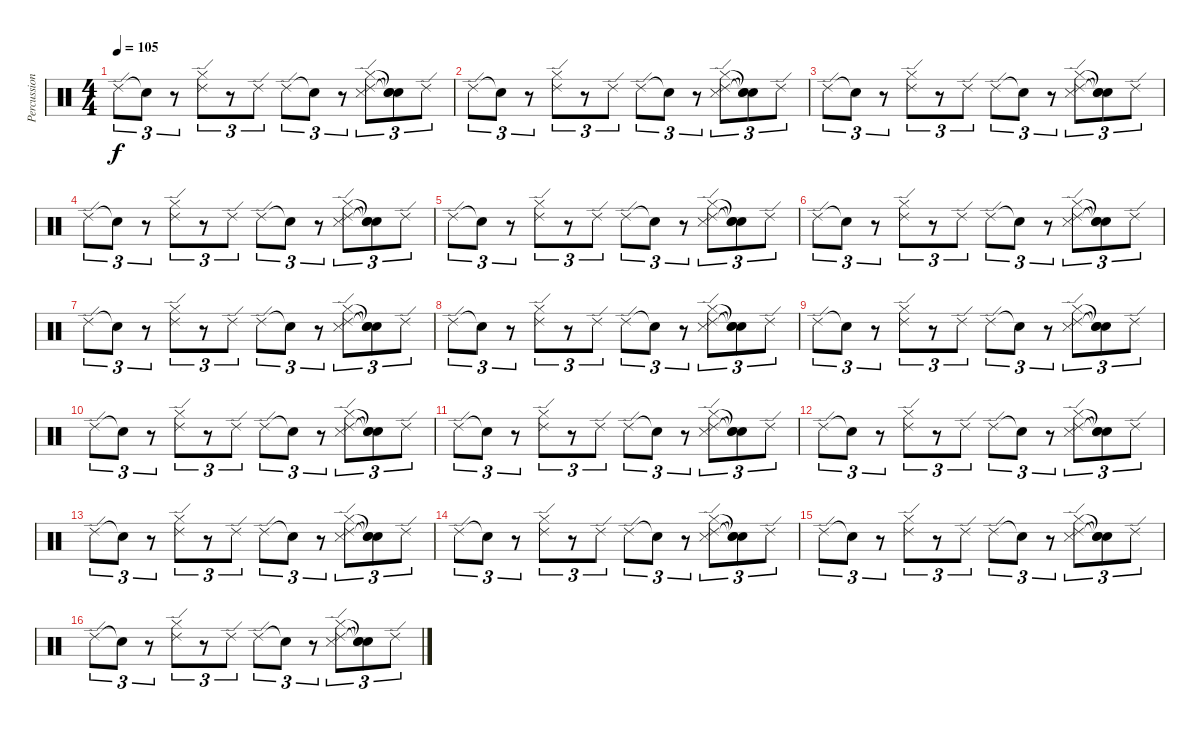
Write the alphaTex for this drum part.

\track ("Percussion" "Percussion") {instrument percussion}
\staff {score}
\articulation defaults
\ts (4 4)
\tempo 105
\clef neutral
\ks c "Ride (edge) 2".8{tu (3 2) dy f} "Snare (hit)"{t}.8{tu (3 2)}
r.8{tu (3 2)} ("Ride (edge) 2" "Hi-Hat (closed)").8{tu (3 2)} r.8{tu (3 2)} "Ride (edge) 2".8{tu (3 2)} "Ride (edge) 2".8{tu (3 2)} "Snare (hit)"{t}.8{tu (3 2)} r.8{tu (3 2)} ("Ride (edge) 2" "Snare (side stick) 3" "Hi-Hat (closed)").8{tu (3 2)} ("Snare (hit)"{t} "Snare (hit)"{t} "Snare (hit)"{t}).8{tu (3 2)} "Ride (edge) 2".8{tu (3 2)} |
"Ride (edge) 2".8{tu (3 2)} "Snare (hit)"{t}.8{tu (3 2)} r.8{tu (3 2)} ("Ride (edge) 2" "Hi-Hat (closed)").8{tu (3 2)} r.8{tu (3 2)} "Ride (edge) 2".8{tu (3 2)} "Ride (edge) 2".8{tu (3 2)} "Snare (hit)"{t}.8{tu (3 2)} r.8{tu (3 2)} ("Ride (edge) 2" "Snare (side stick) 3" "Hi-Hat (closed)").8{tu (3 2)} ("Snare (hit)"{t} "Snare (hit)"{t} "Snare (hit)"{t}).8{tu (3 2)} "Ride (edge) 2".8{tu (3 2)} |
"Ride (edge) 2".8{tu (3 2)} "Snare (hit)"{t}.8{tu (3 2)} r.8{tu (3 2)} ("Ride (edge) 2" "Hi-Hat (closed)").8{tu (3 2)} r.8{tu (3 2)} "Ride (edge) 2".8{tu (3 2)} "Ride (edge) 2".8{tu (3 2)} "Snare (hit)"{t}.8{tu (3 2)} r.8{tu (3 2)} ("Ride (edge) 2" "Snare (side stick) 3" "Hi-Hat (closed)").8{tu (3 2)} ("Snare (hit)"{t} "Snare (hit)"{t} "Snare (hit)"{t}).8{tu (3 2)} "Ride (edge) 2".8{tu (3 2)} |
"Ride (edge) 2".8{tu (3 2)} "Snare (hit)"{t}.8{tu (3 2)} r.8{tu (3 2)} ("Ride (edge) 2" "Hi-Hat (closed)").8{tu (3 2)} r.8{tu (3 2)} "Ride (edge) 2".8{tu (3 2)} "Ride (edge) 2".8{tu (3 2)} "Snare (hit)"{t}.8{tu (3 2)} r.8{tu (3 2)} ("Ride (edge) 2" "Snare (side stick) 3" "Hi-Hat (closed)").8{tu (3 2)} ("Snare (hit)"{t} "Snare (hit)"{t} "Snare (hit)"{t}).8{tu (3 2)} "Ride (edge) 2".8{tu (3 2)} |
"Ride (edge) 2".8{tu (3 2)} "Snare (hit)"{t}.8{tu (3 2)} r.8{tu (3 2)} ("Ride (edge) 2" "Hi-Hat (closed)").8{tu (3 2)} r.8{tu (3 2)} "Ride (edge) 2".8{tu (3 2)} "Ride (edge) 2".8{tu (3 2)} "Snare (hit)"{t}.8{tu (3 2)} r.8{tu (3 2)} ("Ride (edge) 2" "Snare (side stick) 3" "Hi-Hat (closed)").8{tu (3 2)} ("Snare (hit)"{t} "Snare (hit)"{t} "Snare (hit)"{t}).8{tu (3 2)} "Ride (edge) 2".8{tu (3 2)} |
"Ride (edge) 2".8{tu (3 2)} "Snare (hit)"{t}.8{tu (3 2)} r.8{tu (3 2)} ("Ride (edge) 2" "Hi-Hat (closed)").8{tu (3 2)} r.8{tu (3 2)} "Ride (edge) 2".8{tu (3 2)} "Ride (edge) 2".8{tu (3 2)} "Snare (hit)"{t}.8{tu (3 2)} r.8{tu (3 2)} ("Ride (edge) 2" "Snare (side stick) 3" "Hi-Hat (closed)").8{tu (3 2)} ("Snare (hit)"{t} "Snare (hit)"{t} "Snare (hit)"{t}).8{tu (3 2)} "Ride (edge) 2".8{tu (3 2)} |
"Ride (edge) 2".8{tu (3 2)} "Snare (hit)"{t}.8{tu (3 2)} r.8{tu (3 2)} ("Ride (edge) 2" "Hi-Hat (closed)").8{tu (3 2)} r.8{tu (3 2)} "Ride (edge) 2".8{tu (3 2)} "Ride (edge) 2".8{tu (3 2)} "Snare (hit)"{t}.8{tu (3 2)} r.8{tu (3 2)} ("Ride (edge) 2" "Snare (side stick) 3" "Hi-Hat (closed)").8{tu (3 2)} ("Snare (hit)"{t} "Snare (hit)"{t} "Snare (hit)"{t}).8{tu (3 2)} "Ride (edge) 2".8{tu (3 2)} |
"Ride (edge) 2".8{tu (3 2)} "Snare (hit)"{t}.8{tu (3 2)} r.8{tu (3 2)} ("Ride (edge) 2" "Hi-Hat (closed)").8{tu (3 2)} r.8{tu (3 2)} "Ride (edge) 2".8{tu (3 2)} "Ride (edge) 2".8{tu (3 2)} "Snare (hit)"{t}.8{tu (3 2)} r.8{tu (3 2)} ("Ride (edge) 2" "Snare (side stick) 3" "Hi-Hat (closed)").8{tu (3 2)} ("Snare (hit)"{t} "Snare (hit)"{t} "Snare (hit)"{t}).8{tu (3 2)} "Ride (edge) 2".8{tu (3 2)} |
"Ride (edge) 2".8{tu (3 2)} "Snare (hit)"{t}.8{tu (3 2)} r.8{tu (3 2)} ("Ride (edge) 2" "Hi-Hat (closed)").8{tu (3 2)} r.8{tu (3 2)} "Ride (edge) 2".8{tu (3 2)} "Ride (edge) 2".8{tu (3 2)} "Snare (hit)"{t}.8{tu (3 2)} r.8{tu (3 2)} ("Ride (edge) 2" "Snare (side stick) 3" "Hi-Hat (closed)").8{tu (3 2)} ("Snare (hit)"{t} "Snare (hit)"{t} "Snare (hit)"{t}).8{tu (3 2)} "Ride (edge) 2".8{tu (3 2)} |
"Ride (edge) 2".8{tu (3 2)} "Snare (hit)"{t}.8{tu (3 2)} r.8{tu (3 2)} ("Ride (edge) 2" "Hi-Hat (closed)").8{tu (3 2)} r.8{tu (3 2)} "Ride (edge) 2".8{tu (3 2)} "Ride (edge) 2".8{tu (3 2)} "Snare (hit)"{t}.8{tu (3 2)} r.8{tu (3 2)} ("Ride (edge) 2" "Snare (side stick) 3" "Hi-Hat (closed)").8{tu (3 2)} ("Snare (hit)"{t} "Snare (hit)"{t} "Snare (hit)"{t}).8{tu (3 2)} "Ride (edge) 2".8{tu (3 2)} |
"Ride (edge) 2".8{tu (3 2)} "Snare (hit)"{t}.8{tu (3 2)} r.8{tu (3 2)} ("Ride (edge) 2" "Hi-Hat (closed)").8{tu (3 2)} r.8{tu (3 2)} "Ride (edge) 2".8{tu (3 2)} "Ride (edge) 2".8{tu (3 2)} "Snare (hit)"{t}.8{tu (3 2)} r.8{tu (3 2)} ("Ride (edge) 2" "Snare (side stick) 3" "Hi-Hat (closed)").8{tu (3 2)} ("Snare (hit)"{t} "Snare (hit)"{t} "Snare (hit)"{t}).8{tu (3 2)} "Ride (edge) 2".8{tu (3 2)} |
"Ride (edge) 2".8{tu (3 2)} "Snare (hit)"{t}.8{tu (3 2)} r.8{tu (3 2)} ("Ride (edge) 2" "Hi-Hat (closed)").8{tu (3 2)} r.8{tu (3 2)} "Ride (edge) 2".8{tu (3 2)} "Ride (edge) 2".8{tu (3 2)} "Snare (hit)"{t}.8{tu (3 2)} r.8{tu (3 2)} ("Ride (edge) 2" "Snare (side stick) 3" "Hi-Hat (closed)").8{tu (3 2)} ("Snare (hit)"{t} "Snare (hit)"{t} "Snare (hit)"{t}).8{tu (3 2)} "Ride (edge) 2".8{tu (3 2)} |
"Ride (edge) 2".8{tu (3 2)} "Snare (hit)"{t}.8{tu (3 2)} r.8{tu (3 2)} ("Ride (edge) 2" "Hi-Hat (closed)").8{tu (3 2)} r.8{tu (3 2)} "Ride (edge) 2".8{tu (3 2)} "Ride (edge) 2".8{tu (3 2)} "Snare (hit)"{t}.8{tu (3 2)} r.8{tu (3 2)} ("Ride (edge) 2" "Snare (side stick) 3" "Hi-Hat (closed)").8{tu (3 2)} ("Snare (hit)"{t} "Snare (hit)"{t} "Snare (hit)"{t}).8{tu (3 2)} "Ride (edge) 2".8{tu (3 2)} |
"Ride (edge) 2".8{tu (3 2)} "Snare (hit)"{t}.8{tu (3 2)} r.8{tu (3 2)} ("Ride (edge) 2" "Hi-Hat (closed)").8{tu (3 2)} r.8{tu (3 2)} "Ride (edge) 2".8{tu (3 2)} "Ride (edge) 2".8{tu (3 2)} "Snare (hit)"{t}.8{tu (3 2)} r.8{tu (3 2)} ("Ride (edge) 2" "Snare (side stick) 3" "Hi-Hat (closed)").8{tu (3 2)} ("Snare (hit)"{t} "Snare (hit)"{t} "Snare (hit)"{t}).8{tu (3 2)} "Ride (edge) 2".8{tu (3 2)} |
"Ride (edge) 2".8{tu (3 2)} "Snare (hit)"{t}.8{tu (3 2)} r.8{tu (3 2)} ("Ride (edge) 2" "Hi-Hat (closed)").8{tu (3 2)} r.8{tu (3 2)} "Ride (edge) 2".8{tu (3 2)} "Ride (edge) 2".8{tu (3 2)} "Snare (hit)"{t}.8{tu (3 2)} r.8{tu (3 2)} ("Ride (edge) 2" "Snare (side stick) 3" "Hi-Hat (closed)").8{tu (3 2)} ("Snare (hit)"{t} "Snare (hit)"{t} "Snare (hit)"{t}).8{tu (3 2)} "Ride (edge) 2".8{tu (3 2)} |
"Ride (edge) 2".8{tu (3 2)} "Snare (hit)"{t}.8{tu (3 2)} r.8{tu (3 2)} ("Ride (edge) 2" "Hi-Hat (closed)").8{tu (3 2)} r.8{tu (3 2)} "Ride (edge) 2".8{tu (3 2)} "Ride (edge) 2".8{tu (3 2)} "Snare (hit)"{t}.8{tu (3 2)} r.8{tu (3 2)} ("Ride (edge) 2" "Snare (side stick) 3" "Hi-Hat (closed)").8{tu (3 2)} ("Snare (hit)"{t} "Snare (hit)"{t} "Snare (hit)"{t}).8{tu (3 2)} "Ride (edge) 2".8{tu (3 2)}
